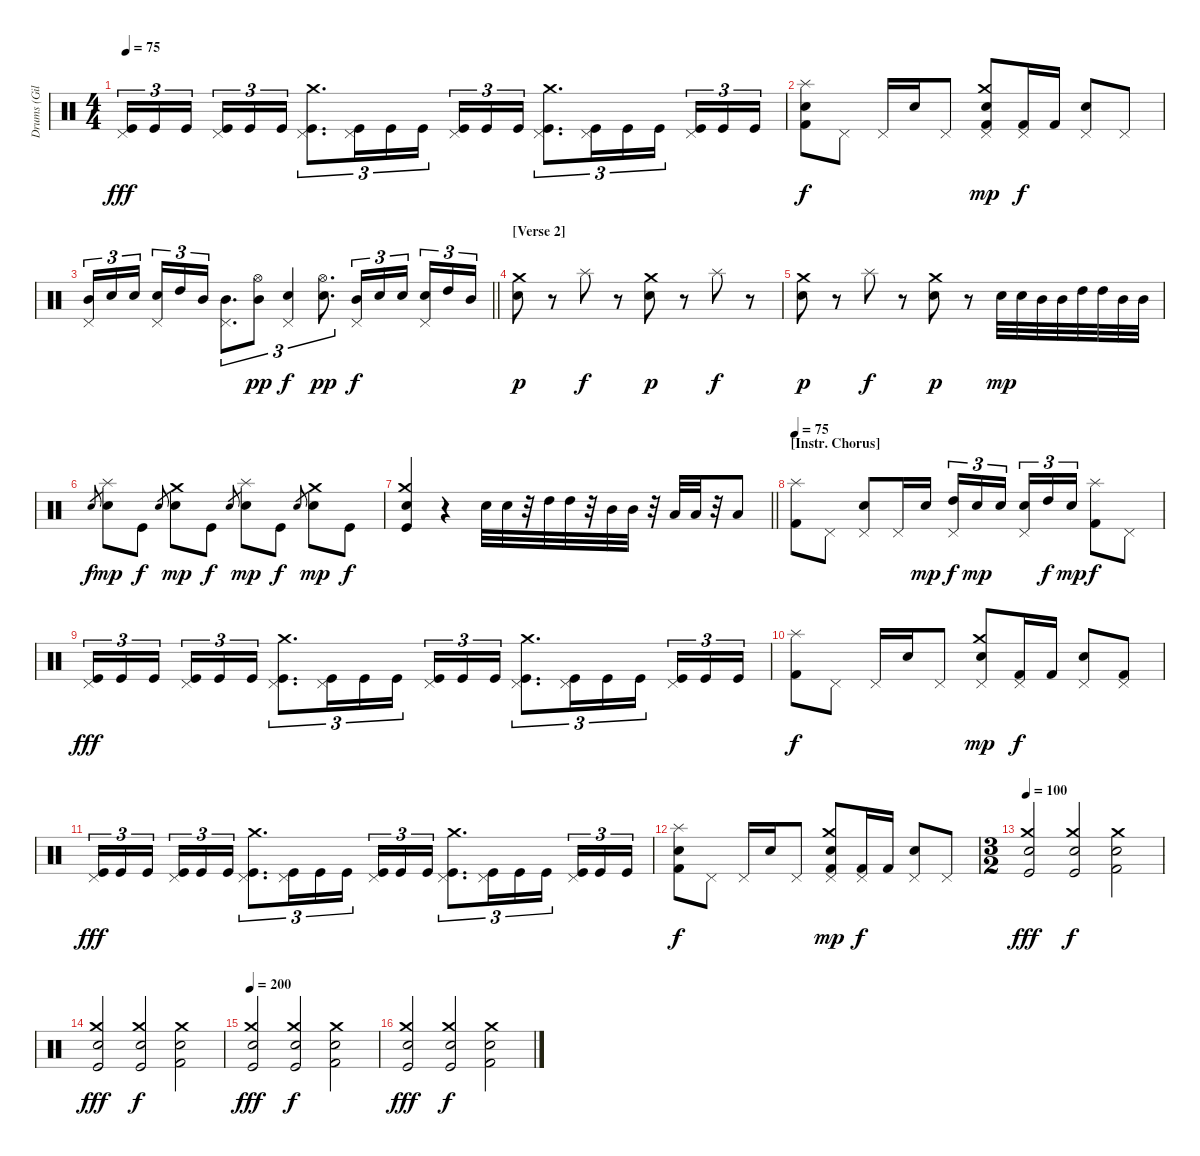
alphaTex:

\track ("Drums (Giles)" "Drums (Gil") {instrument percussion}
\staff {score}
\articulation defaults
\ts (4 4)
\tempo 75
\clef neutral
\ks c
("Pedal Hi-Hat (hit)" "Kick (hit)").16{tu (3 2) dy fff} "Kick (hit)".16{tu (3 2)} "Kick (hit)".16{tu (3 2) beam splitsecondary} ("Pedal Hi-Hat (hit)" "Kick (hit)").16{tu (3 2)} "Kick (hit)".16{tu (3 2)} "Kick (hit)".16{tu (3 2)} ("Crash medium (hit)" "Pedal Hi-Hat (hit)" "Kick (hit)").8{d tu (3 2)} ("Pedal Hi-Hat (hit)" "Kick (hit)").16{tu (3 2)} "Kick (hit)".16{tu (3 2)} "Kick (hit)".16{tu (3 2)} ("Pedal Hi-Hat (hit)" "Kick (hit)").16{tu (3 2)} "Kick (hit)".16{tu (3 2)} "Kick (hit)".16{tu (3 2)} ("Crash medium (hit)" "Pedal Hi-Hat (hit)" "Kick (hit)").8{d tu (3 2)} ("Pedal Hi-Hat (hit)" "Kick (hit)").16{tu (3 2)} "Kick (hit)".16{tu (3 2)} "Kick (hit)".16{tu (3 2) beam splitsecondary} ("Pedal Hi-Hat (hit)" "Kick (hit)").16{tu (3 2)} "Kick (hit)".16{tu (3 2)} "Kick (hit)".16{tu (3 2)} |
("Splash (hit)" "Electric Snare (hit)" "Kick (hit) 2").8{dy f} "Pedal Hi-Hat (hit)".8 "Pedal Hi-Hat (hit)".16 "Electric Snare (hit)".16 "Pedal Hi-Hat (hit)".8 ("Crash medium (hit)" "Pedal Hi-Hat (hit)" "Electric Snare (hit)" "Kick (hit) 2").8{dy mp} ("Pedal Hi-Hat (hit)" "Kick (hit) 2").16{dy f} "Kick (hit) 2".16 ("Pedal Hi-Hat (hit)" "Electric Snare (hit)").8 "Pedal Hi-Hat (hit)".8 |
\barLineRight lightlight
("Pedal Hi-Hat (hit)" "Mid Tom (hit)").16{tu (3 2)} "Electric Snare (hit)".16{tu (3 2)} "Electric Snare (hit)".16{tu (3 2) beam splitsecondary} ("Pedal Hi-Hat (hit)" "Electric Snare (hit)").16{tu (3 2)} "High Tom (hit)".16{tu (3 2)} "Mid Tom (hit)".16{tu (3 2)} ("Pedal Hi-Hat (hit)" "Mid Tom (hit)").8{d tu (3 2)} ("Hi-Hat (open)" "Mid Tom (hit)").8{tu (3 2) dy pp} ("Pedal Hi-Hat (hit)" "Electric Snare (hit)").4{tu (3 2) dy f} ("Hi-Hat (open)" "Electric Snare (hit)").8{d tu (3 2) dy pp} ("Pedal Hi-Hat (hit)" "Mid Tom (hit)").16{tu (3 2) dy f} "Electric Snare (hit)".16{tu (3 2)} "Electric Snare (hit)".16{tu (3 2) beam splitsecondary} ("Pedal Hi-Hat (hit)" "Electric Snare (hit)").16{tu (3 2)} "High Tom (hit)".16{tu (3 2)} "Mid Tom (hit)".16{tu (3 2)} |
\section ("" "[Verse 2]")
("Crash medium (hit)" "Metronome (bell)").8{dy p} r.8 "Splash (hit)".8{dy f} r.8 ("Crash medium (hit)" "Metronome (bell)").8{dy p} r.8 "Splash (hit)".8{dy f} r.8 |
("Crash medium (hit)" "Metronome (bell)").8{dy p} r.8 "Splash (hit)".8{dy f} r.8 ("Crash medium (hit)" "Metronome (bell)").8{dy p} r.8 "Electric Snare (hit)".32{dy mp} "Electric Snare (hit)".32 "Mid Tom (hit)".32 "Mid Tom (hit)".32 "High Tom (hit)".32 "High Tom (hit)".32 "Mid Tom (hit)".32 "Mid Tom (hit)".32 |
"Electric Snare (hit)".8{gr dy f} ("Splash (hit)" "Electric Snare (hit)").8{dy mp} "Kick (hit)".8{dy f} "Electric Snare (hit)".8{gr} ("Crash medium (hit)" "Electric Snare (hit)").8{dy mp} "Kick (hit)".8{dy f} "Electric Snare (hit)".8{gr} ("Splash (hit)" "Electric Snare (hit)").8{dy mp} "Kick (hit)".8{dy f} "Electric Snare (hit)".8{gr} ("Crash medium (hit)" "Electric Snare (hit)").8{dy mp} "Kick (hit)".8{dy f} |
\barLineRight lightlight
("Crash medium (hit)" "Electric Snare (hit)" "Kick (hit)").4 r.4 "Electric Snare (hit)".32 "Electric Snare (hit)".32 r.32 "High Tom (hit)".32 "High Tom (hit)".32 r.32 "Mid Tom (hit)".32 "Mid Tom (hit)".32 r.32 "Low Tom (hit)".32 "Low Tom (hit)".32 r.32 "Low Floor Tom (hit)".8 |
\section ("" "[Instr. Chorus]")
\tempo 75
("Splash (hit)" "Kick (hit) 2").8{volume 14} "Pedal Hi-Hat (hit)".8 ("Pedal Hi-Hat (hit)" "Electric Snare (hit)").8 "Pedal Hi-Hat (hit)".16 "Electric Snare (hit)".16{dy mp} ("Pedal Hi-Hat (hit)" "High Tom (hit)").16{tu (3 2) dy f} "Electric Snare (hit)".16{tu (3 2) dy mp} "Electric Snare (hit)".16{tu (3 2) beam splitsecondary} ("Pedal Hi-Hat (hit)" "Electric Snare (hit)").16{tu (3 2)} "High Tom (hit)".16{tu (3 2) dy f} "Electric Snare (hit)".16{tu (3 2) dy mp} ("Splash (hit)" "Kick (hit) 2").8{dy f} "Pedal Hi-Hat (hit)".8 |
("Pedal Hi-Hat (hit)" "Kick (hit)").16{tu (3 2) dy fff} "Kick (hit)".16{tu (3 2)} "Kick (hit)".16{tu (3 2) beam splitsecondary} ("Pedal Hi-Hat (hit)" "Kick (hit)").16{tu (3 2)} "Kick (hit)".16{tu (3 2)} "Kick (hit)".16{tu (3 2)} ("Crash medium (hit)" "Pedal Hi-Hat (hit)" "Kick (hit)").8{d tu (3 2)} ("Pedal Hi-Hat (hit)" "Kick (hit)").16{tu (3 2)} "Kick (hit)".16{tu (3 2)} "Kick (hit)".16{tu (3 2)} ("Pedal Hi-Hat (hit)" "Kick (hit)").16{tu (3 2)} "Kick (hit)".16{tu (3 2)} "Kick (hit)".16{tu (3 2)} ("Crash medium (hit)" "Pedal Hi-Hat (hit)" "Kick (hit)").8{d tu (3 2)} ("Pedal Hi-Hat (hit)" "Kick (hit)").16{tu (3 2)} "Kick (hit)".16{tu (3 2)} "Kick (hit)".16{tu (3 2) beam splitsecondary} ("Pedal Hi-Hat (hit)" "Kick (hit)").16{tu (3 2)} "Kick (hit)".16{tu (3 2)} "Kick (hit)".16{tu (3 2)} |
("Splash (hit)" "Kick (hit) 2").8{dy f} "Pedal Hi-Hat (hit)".8 "Pedal Hi-Hat (hit)".16 "Electric Snare (hit)".16 "Pedal Hi-Hat (hit)".8 ("Crash medium (hit)" "Pedal Hi-Hat (hit)" "Electric Snare (hit)").8{dy mp} ("Pedal Hi-Hat (hit)" "Kick (hit) 2").16{dy f} "Kick (hit) 2".16 ("Pedal Hi-Hat (hit)" "Electric Snare (hit)").8 ("Pedal Hi-Hat (hit)" "Kick (hit) 2").8 |
("Pedal Hi-Hat (hit)" "Kick (hit)").16{tu (3 2) dy fff} "Kick (hit)".16{tu (3 2)} "Kick (hit)".16{tu (3 2) beam splitsecondary} ("Pedal Hi-Hat (hit)" "Kick (hit)").16{tu (3 2)} "Kick (hit)".16{tu (3 2)} "Kick (hit)".16{tu (3 2)} ("Crash medium (hit)" "Pedal Hi-Hat (hit)" "Kick (hit)").8{d tu (3 2)} ("Pedal Hi-Hat (hit)" "Kick (hit)").16{tu (3 2)} "Kick (hit)".16{tu (3 2)} "Kick (hit)".16{tu (3 2)} ("Pedal Hi-Hat (hit)" "Kick (hit)").16{tu (3 2)} "Kick (hit)".16{tu (3 2)} "Kick (hit)".16{tu (3 2)} ("Crash medium (hit)" "Pedal Hi-Hat (hit)" "Kick (hit)").8{d tu (3 2)} ("Pedal Hi-Hat (hit)" "Kick (hit)").16{tu (3 2)} "Kick (hit)".16{tu (3 2)} "Kick (hit)".16{tu (3 2) beam splitsecondary} ("Pedal Hi-Hat (hit)" "Kick (hit)").16{tu (3 2)} "Kick (hit)".16{tu (3 2)} "Kick (hit)".16{tu (3 2)} |
("Splash (hit)" "Electric Snare (hit)" "Kick (hit) 2").8{dy f} "Pedal Hi-Hat (hit)".8 "Pedal Hi-Hat (hit)".16 "Electric Snare (hit)".16 "Pedal Hi-Hat (hit)".8 ("Crash medium (hit)" "Pedal Hi-Hat (hit)" "Electric Snare (hit)" "Kick (hit) 2").8{dy mp} ("Pedal Hi-Hat (hit)" "Kick (hit) 2").16{dy f} "Kick (hit) 2".16 ("Pedal Hi-Hat (hit)" "Electric Snare (hit)").8 "Pedal Hi-Hat (hit)".8 |
\ts (3 2)
\tempo 100
("Crash medium (hit)" "Electric Snare (hit)" "Kick (hit)").2{dy fff} ("Crash medium (hit)" "Electric Snare (hit)" "Kick (hit)").2{dy f} ("Crash medium (hit)" "Electric Snare (hit)" "Kick (hit) 2").2 |
("Crash medium (hit)" "Electric Snare (hit)" "Kick (hit)").2{dy fff} ("Crash medium (hit)" "Electric Snare (hit)" "Kick (hit)").2{dy f} ("Crash medium (hit)" "Electric Snare (hit)" "Kick (hit) 2").2 |
\tempo 200
("Crash medium (hit)" "Electric Snare (hit)" "Kick (hit)").2{dy fff} ("Crash medium (hit)" "Electric Snare (hit)" "Kick (hit)").2{dy f} ("Crash medium (hit)" "Electric Snare (hit)" "Kick (hit) 2").2 |
("Crash medium (hit)" "Electric Snare (hit)" "Kick (hit)").2{dy fff} ("Crash medium (hit)" "Electric Snare (hit)" "Kick (hit)").2{dy f} ("Crash medium (hit)" "Electric Snare (hit)" "Kick (hit) 2").2
